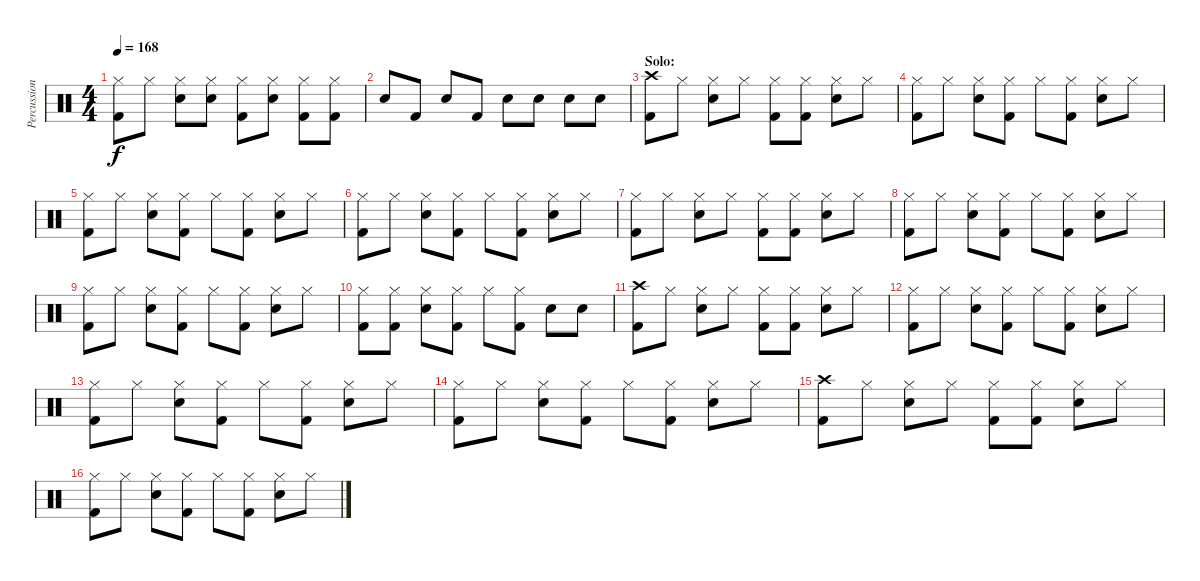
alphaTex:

\track ("Percussion" "Percussion") {instrument percussion}
\staff {score}
\articulation defaults
\ts (4 4)
\tempo 168
\clef neutral
\ks c
("Hi-Hat (closed)" "Kick (hit) 2").8{dy f} "Hi-Hat (closed)".8 ("Hi-Hat (closed)" "Snare (hit) 2").8 ("Hi-Hat (closed)" "Snare (hit) 2").8 ("Hi-Hat (closed)" "Kick (hit) 2").8 ("Hi-Hat (closed)" "Snare (hit) 2").8 ("Hi-Hat (closed)" "Kick (hit) 2").8 ("Hi-Hat (closed)" "Kick (hit) 2").8 |
"Snare (hit) 2".8 "Kick (hit) 2".8 "Snare (hit) 2".8 "Kick (hit) 2".8 "Snare (hit) 2".8 "Snare (hit) 2".8 "Snare (hit) 2".8 "Snare (hit) 2".8 |
\section ("" "Solo:")
("Crash high (hit)" "Kick (hit) 2").8 "Hi-Hat (closed)".8 ("Hi-Hat (closed)" "Snare (hit) 2").8 "Hi-Hat (closed)".8 ("Hi-Hat (closed)" "Kick (hit) 2").8 ("Hi-Hat (closed)" "Kick (hit) 2").8 ("Hi-Hat (closed)" "Snare (hit) 2").8 "Hi-Hat (closed)".8 |
("Hi-Hat (closed)" "Kick (hit) 2").8 "Hi-Hat (closed)".8 ("Hi-Hat (closed)" "Snare (hit) 2").8 ("Hi-Hat (closed)" "Kick (hit) 2").8 "Hi-Hat (closed)".8 ("Hi-Hat (closed)" "Kick (hit) 2").8 ("Hi-Hat (closed)" "Snare (hit) 2").8 "Hi-Hat (closed)".8 |
("Hi-Hat (closed)" "Kick (hit) 2").8 "Hi-Hat (closed)".8 ("Hi-Hat (closed)" "Snare (hit) 2").8 ("Hi-Hat (closed)" "Kick (hit) 2").8 "Hi-Hat (closed)".8 ("Hi-Hat (closed)" "Kick (hit) 2").8 ("Hi-Hat (closed)" "Snare (hit) 2").8 "Hi-Hat (closed)".8 |
("Hi-Hat (closed)" "Kick (hit) 2").8 "Hi-Hat (closed)".8 ("Hi-Hat (closed)" "Snare (hit) 2").8 ("Hi-Hat (closed)" "Kick (hit) 2").8 "Hi-Hat (closed)".8 ("Hi-Hat (closed)" "Kick (hit) 2").8 ("Hi-Hat (closed)" "Snare (hit) 2").8 "Hi-Hat (closed)".8 |
("Hi-Hat (closed)" "Kick (hit) 2").8 "Hi-Hat (closed)".8 ("Hi-Hat (closed)" "Snare (hit) 2").8 "Hi-Hat (closed)".8 ("Hi-Hat (closed)" "Kick (hit) 2").8 ("Hi-Hat (closed)" "Kick (hit) 2").8 ("Hi-Hat (closed)" "Snare (hit) 2").8 "Hi-Hat (closed)".8 |
("Hi-Hat (closed)" "Kick (hit) 2").8 "Hi-Hat (closed)".8 ("Hi-Hat (closed)" "Snare (hit) 2").8 ("Hi-Hat (closed)" "Kick (hit) 2").8 "Hi-Hat (closed)".8 ("Hi-Hat (closed)" "Kick (hit) 2").8 ("Hi-Hat (closed)" "Snare (hit) 2").8 "Hi-Hat (closed)".8 |
("Hi-Hat (closed)" "Kick (hit) 2").8 "Hi-Hat (closed)".8 ("Hi-Hat (closed)" "Snare (hit) 2").8 ("Hi-Hat (closed)" "Kick (hit) 2").8 "Hi-Hat (closed)".8 ("Hi-Hat (closed)" "Kick (hit) 2").8 ("Hi-Hat (closed)" "Snare (hit) 2").8 "Hi-Hat (closed)".8 |
("Hi-Hat (closed)" "Kick (hit) 2").8 ("Hi-Hat (closed)" "Kick (hit) 2").8 ("Hi-Hat (closed)" "Snare (hit) 2").8 ("Hi-Hat (closed)" "Kick (hit) 2").8 "Hi-Hat (closed)".8 ("Hi-Hat (closed)" "Kick (hit) 2").8 "Snare (hit) 2".8 "Snare (hit) 2".8 |
("Crash high (hit)" "Kick (hit) 2").8 "Hi-Hat (closed)".8 ("Hi-Hat (closed)" "Snare (hit) 2").8 "Hi-Hat (closed)".8 ("Hi-Hat (closed)" "Kick (hit) 2").8 ("Hi-Hat (closed)" "Kick (hit) 2").8 ("Hi-Hat (closed)" "Snare (hit) 2").8 "Hi-Hat (closed)".8 |
("Hi-Hat (closed)" "Kick (hit) 2").8 "Hi-Hat (closed)".8 ("Hi-Hat (closed)" "Snare (hit) 2").8 ("Hi-Hat (closed)" "Kick (hit) 2").8 "Hi-Hat (closed)".8 ("Hi-Hat (closed)" "Kick (hit) 2").8 ("Hi-Hat (closed)" "Snare (hit) 2").8 "Hi-Hat (closed)".8 |
("Hi-Hat (closed)" "Kick (hit) 2").8 "Hi-Hat (closed)".8 ("Hi-Hat (closed)" "Snare (hit) 2").8 ("Hi-Hat (closed)" "Kick (hit) 2").8 "Hi-Hat (closed)".8 ("Hi-Hat (closed)" "Kick (hit) 2").8 ("Hi-Hat (closed)" "Snare (hit) 2").8 "Hi-Hat (closed)".8 |
("Hi-Hat (closed)" "Kick (hit) 2").8 "Hi-Hat (closed)".8 ("Hi-Hat (closed)" "Snare (hit) 2").8 ("Hi-Hat (closed)" "Kick (hit) 2").8 "Hi-Hat (closed)".8 ("Hi-Hat (closed)" "Kick (hit) 2").8 ("Hi-Hat (closed)" "Snare (hit) 2").8 "Hi-Hat (closed)".8 |
("Crash high (hit)" "Kick (hit) 2").8 "Hi-Hat (closed)".8 ("Hi-Hat (closed)" "Snare (hit) 2").8 "Hi-Hat (closed)".8 ("Hi-Hat (closed)" "Kick (hit) 2").8 ("Hi-Hat (closed)" "Kick (hit) 2").8 ("Hi-Hat (closed)" "Snare (hit) 2").8 "Hi-Hat (closed)".8 |
("Hi-Hat (closed)" "Kick (hit) 2").8 "Hi-Hat (closed)".8 ("Hi-Hat (closed)" "Snare (hit) 2").8 ("Hi-Hat (closed)" "Kick (hit) 2").8 "Hi-Hat (closed)".8 ("Hi-Hat (closed)" "Kick (hit) 2").8 ("Hi-Hat (closed)" "Snare (hit) 2").8 "Hi-Hat (closed)".8
